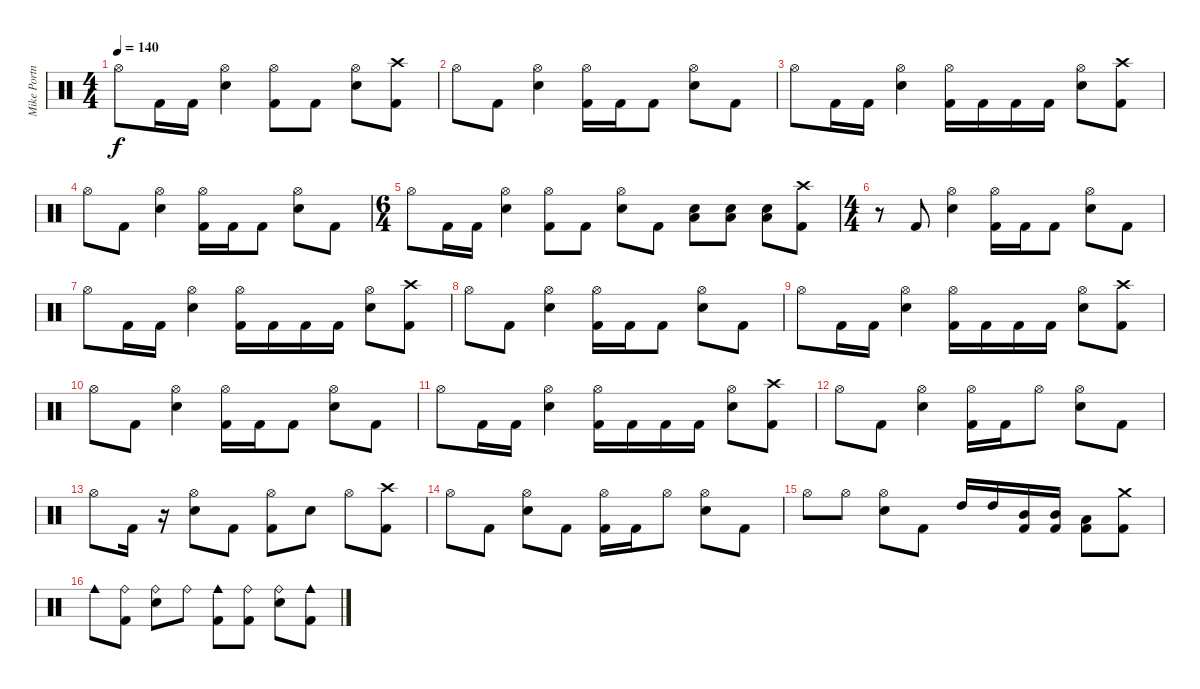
\track ("Mike Portnoy - Drums" "Mike Portn") {instrument percussion}
\staff {score}
\articulation defaults
\ts (4 4)
\tempo 140
\clef neutral
\ks c "Hi-Hat (open)".8{dy f} "Kick (hit) 2".16 "Kick (hit) 2".16
("Electric Snare (hit)" "Hi-Hat (open)").4 ("Hi-Hat (open)" "Kick (hit) 2").8 "Kick (hit) 2".8 ("Hi-Hat (open)" "Electric Snare (hit)").8 ("Crash high (hit)" "Kick (hit) 2").8 |
"Hi-Hat (open)".8 "Kick (hit) 2".8 ("Electric Snare (hit)" "Hi-Hat (open)").4 ("Kick (hit) 2" "Hi-Hat (open)").16 "Kick (hit) 2".16 "Kick (hit) 2".8 ("Hi-Hat (open)" "Electric Snare (hit)").8 "Kick (hit) 2".8 |
"Hi-Hat (open)".8 "Kick (hit) 2".16 "Kick (hit) 2".16 ("Electric Snare (hit)" "Hi-Hat (open)").4 ("Hi-Hat (open)" "Kick (hit) 2").16 "Kick (hit) 2".16 "Kick (hit) 2".16 "Kick (hit) 2".16 ("Hi-Hat (open)" "Electric Snare (hit)").8 ("Kick (hit) 2" "Crash high (hit)").8 |
"Hi-Hat (open)".8 "Kick (hit) 2".8 ("Electric Snare (hit)" "Hi-Hat (open)").4 ("Kick (hit) 2" "Hi-Hat (open)").16 "Kick (hit) 2".16 "Kick (hit) 2".8 ("Hi-Hat (open)" "Electric Snare (hit)").8 "Kick (hit) 2".8 |
\ts (6 4)
"Hi-Hat (open)".8 "Kick (hit) 2".16 "Kick (hit) 2".16 ("Electric Snare (hit)" "Hi-Hat (open)").4 ("Hi-Hat (open)" "Kick (hit) 2").8 "Kick (hit) 2".8 ("Hi-Hat (open)" "Electric Snare (hit)").8 "Kick (hit) 2".8 ("Electric Snare (hit)" "Low Tom (hit)").8 ("Low Tom (hit)" "Electric Snare (hit)").8 ("Low Tom (hit)" "Electric Snare (hit)").8 ("Kick (hit) 2" "Crash high (hit)").8 |
\ts (4 4)
r.8 "Kick (hit) 2".8 ("Electric Snare (hit)" "Hi-Hat (open)").4 ("Kick (hit) 2" "Hi-Hat (open)").16 "Kick (hit) 2".16 "Kick (hit) 2".8 ("Hi-Hat (open)" "Electric Snare (hit)").8 "Kick (hit) 2".8 |
"Hi-Hat (open)".8 "Kick (hit) 2".16 "Kick (hit) 2".16 ("Electric Snare (hit)" "Hi-Hat (open)").4 ("Hi-Hat (open)" "Kick (hit) 2").16 "Kick (hit) 2".16 "Kick (hit) 2".16 "Kick (hit) 2".16 ("Hi-Hat (open)" "Electric Snare (hit)").8 ("Kick (hit) 2" "Crash high (hit)").8 |
"Hi-Hat (open)".8 "Kick (hit) 2".8 ("Electric Snare (hit)" "Hi-Hat (open)").4 ("Kick (hit) 2" "Hi-Hat (open)").16 "Kick (hit) 2".16 "Kick (hit) 2".8 ("Hi-Hat (open)" "Electric Snare (hit)").8 "Kick (hit) 2".8 |
"Hi-Hat (open)".8 "Kick (hit) 2".16 "Kick (hit) 2".16 ("Electric Snare (hit)" "Hi-Hat (open)").4 ("Hi-Hat (open)" "Kick (hit) 2").16 "Kick (hit) 2".16 "Kick (hit) 2".16 "Kick (hit) 2".16 ("Hi-Hat (open)" "Electric Snare (hit)").8 ("Kick (hit) 2" "Crash high (hit)").8 |
"Hi-Hat (open)".8 "Kick (hit) 2".8 ("Electric Snare (hit)" "Hi-Hat (open)").4 ("Kick (hit) 2" "Hi-Hat (open)").16 "Kick (hit) 2".16 "Kick (hit) 2".8 ("Hi-Hat (open)" "Electric Snare (hit)").8 "Kick (hit) 2".8 |
"Hi-Hat (open)".8 "Kick (hit) 2".16 "Kick (hit) 2".16 ("Electric Snare (hit)" "Hi-Hat (open)").4 ("Hi-Hat (open)" "Kick (hit) 2").16 "Kick (hit) 2".16 "Kick (hit) 2".16 "Kick (hit) 2".16 ("Hi-Hat (open)" "Electric Snare (hit)").8 ("Crash high (hit)" "Kick (hit) 2").8 |
"Hi-Hat (open)".8 "Kick (hit) 2".8 ("Electric Snare (hit)" "Hi-Hat (open)").4 ("Kick (hit) 2" "Hi-Hat (open)").16 "Kick (hit) 2".16 "Hi-Hat (open)".8 ("Hi-Hat (open)" "Electric Snare (hit)").8 "Kick (hit) 2".8 |
"Hi-Hat (open)".8 "Kick (hit) 2".16 r.16 ("Electric Snare (hit)" "Hi-Hat (open)").8 "Kick (hit) 2".8 ("Hi-Hat (open)" "Kick (hit) 2").8 "Electric Snare (hit)".8 "Hi-Hat (open)".8 ("Crash high (hit)" "Kick (hit) 2").8 |
"Hi-Hat (open)".8 "Kick (hit) 2".8 ("Electric Snare (hit)" "Hi-Hat (open)").8 "Kick (hit) 2".8 ("Kick (hit) 2" "Hi-Hat (open)").16 "Kick (hit) 2".16 "Hi-Hat (open)".8 ("Hi-Hat (open)" "Electric Snare (hit)").8 "Kick (hit) 2".8 |
"Hi-Hat (open)".8 "Hi-Hat (open)".8 ("Electric Snare (hit)" "Hi-Hat (open)").8 "Kick (hit) 2".8 "High Tom (hit)".16 "High Tom (hit)".16 ("Mid Tom (hit)" "Kick (hit) 2").16 ("Mid Tom (hit)" "Kick (hit) 2").16 ("Low Tom (hit)" "Kick (hit) 2").8 ("Crash medium (hit)" "Kick (hit) 2").8 |
"Cowbell medium (hit)".8 ("Kick (hit) 2" "Ride (bell)").8 ("Electric Snare (hit)" "Ride (bell)").8 "Ride (bell)".8 ("Kick (hit) 2" "Cowbell medium (hit)").8 ("Kick (hit) 2" "Ride (bell)").8 ("Electric Snare (hit)" "Ride (bell)").8 ("Kick (hit) 2" "Cowbell medium (hit)").8
